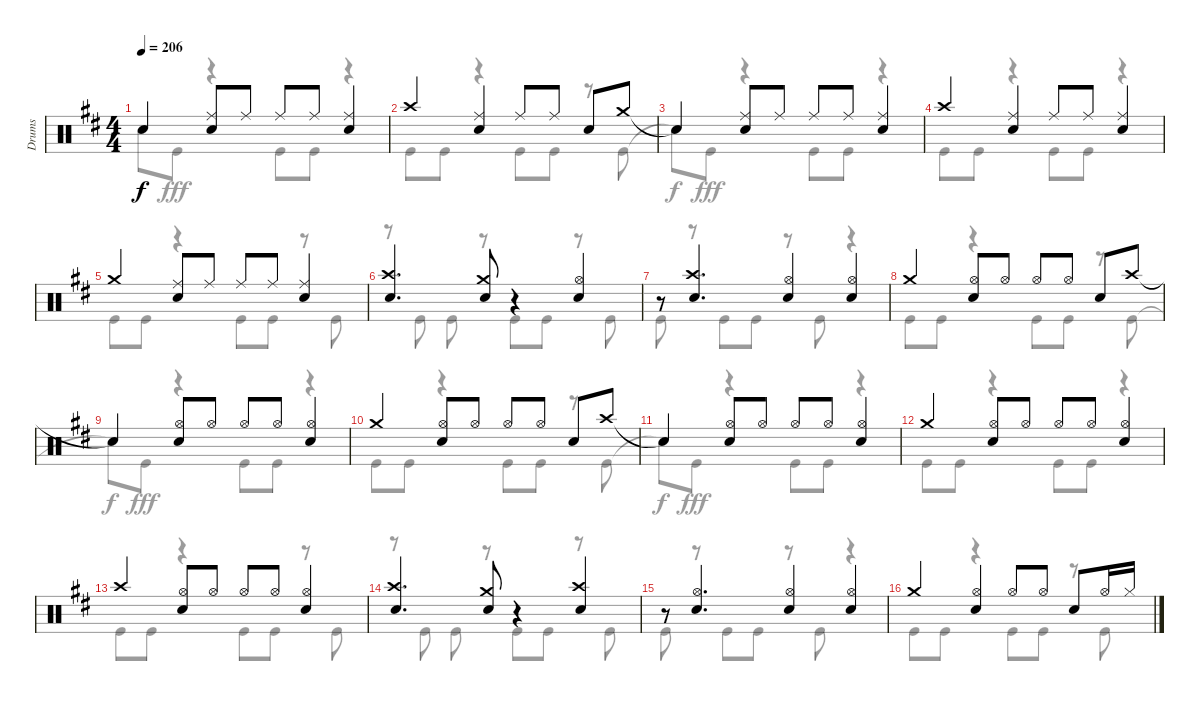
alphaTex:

\track ("Drums" "Drums") {instrument percussion}
\staff {score}
\articulation defaults
\voice
\ts (4 4)
\tempo 206
\clef neutral
\ks d "Snare (hit)"{t}.4{dy f}
("Ride (middle)" "Snare (hit) 2").8 "Ride (middle)".8 "Ride (middle)".8 "Ride (middle)".8 ("Ride (middle)" "Snare (hit) 2").4 |
"Crash high (hit)".4 ("Ride (middle)" "Snare (hit) 2").4 "Ride (middle)".8 "Ride (middle)".8 "Snare (hit) 2".8 "Crash medium (hit)".8 |
"Snare (hit)"{t}.4 ("Ride (middle)" "Snare (hit) 2").8 "Ride (middle)".8 "Ride (middle)".8 "Ride (middle)".8 ("Ride (middle)" "Snare (hit) 2").4 |
"Crash high (hit)".4 ("Ride (middle)" "Snare (hit) 2").4 "Ride (middle)".8 "Ride (middle)".8 ("Ride (middle)" "Snare (hit) 2").4 |
"Crash medium (hit)".4 ("Ride (middle)" "Snare (hit) 2").8 "Ride (middle)".8 "Ride (middle)".8 "Ride (middle)".8 ("Ride (middle)" "Snare (hit) 2").4 |
("Crash high (hit)" "Snare (hit) 2").4{d} ("Crash medium (hit)" "Snare (hit) 2").8 r.4 ("Hi-Hat (open)" "Snare (hit) 2").4 |
r.8 ("Crash high (hit)" "Snare (hit) 2").4{d} ("Hi-Hat (open)" "Snare (hit) 2").4 ("Hi-Hat (open)" "Snare (hit) 2").4 |
"Crash medium (hit)".4 ("Hi-Hat (open)" "Snare (hit) 2").8 "Hi-Hat (open)".8 "Hi-Hat (open)".8 "Hi-Hat (open)".8 "Snare (hit) 2".8 "Crash high (hit)".8 |
"Snare (hit)"{t}.4 ("Hi-Hat (open)" "Snare (hit) 2").8 "Hi-Hat (open)".8 "Hi-Hat (open)".8 "Hi-Hat (open)".8 ("Hi-Hat (open)" "Snare (hit) 2").4 |
"Crash medium (hit)".4 ("Hi-Hat (open)" "Snare (hit) 2").8 "Hi-Hat (open)".8 "Hi-Hat (open)".8 "Hi-Hat (open)".8 "Snare (hit) 2".8 "Crash high (hit)".8 |
"Snare (hit)"{t}.4 ("Hi-Hat (open)" "Snare (hit) 2").8 "Hi-Hat (open)".8 "Hi-Hat (open)".8 "Hi-Hat (open)".8 ("Hi-Hat (open)" "Snare (hit) 2").4 |
"Crash medium (hit)".4 ("Hi-Hat (open)" "Snare (hit) 2").8 "Hi-Hat (open)".8 "Hi-Hat (open)".8 "Hi-Hat (open)".8 ("Hi-Hat (open)" "Snare (hit) 2").4 |
"Crash high (hit)".4 ("Hi-Hat (open)" "Snare (hit) 2").8 "Hi-Hat (open)".8 "Hi-Hat (open)".8 "Hi-Hat (open)".8 ("Hi-Hat (open)" "Snare (hit) 2").4 |
("Crash high (hit)" "Snare (hit) 2").4{d} ("Crash medium (hit)" "Snare (hit) 2").8 r.4 ("Crash high (hit)" "Snare (hit) 2").4 |
r.8 ("Hi-Hat (open)" "Snare (hit) 2").4{d} ("Hi-Hat (open)" "Snare (hit) 2").4 ("Hi-Hat (open)" "Snare (hit) 2").4 |
"Crash medium (hit)".4 ("Hi-Hat (open)" "Snare (hit) 2").4 "Hi-Hat (open)".8 "Hi-Hat (open)".8 "Snare (hit) 2".8 "Hi-Hat (open)".16 "Hi-Hat (closed)".16
\voice
\clef neutral
\ottava regular
\simile none
\ks d "Snare (hit)"{t}.8{dy f} "Kick (hit)".8{dy fff}
r.4 "Kick (hit)".8 "Kick (hit)".8 r.4 |
"Kick (hit)".8 "Kick (hit)".8 r.4 "Kick (hit)".8 "Kick (hit)".8 r.8 "Kick (hit)".8 |
"Snare (hit)"{t}.8{dy f} "Kick (hit)".8{dy fff} r.4 "Kick (hit)".8 "Kick (hit)".8 r.4 |
"Kick (hit)".8 "Kick (hit)".8 r.4 "Kick (hit)".8 "Kick (hit)".8 r.4 |
"Kick (hit)".8 "Kick (hit)".8 r.4 "Kick (hit)".8 "Kick (hit)".8 r.8 "Kick (hit)".8 |
r.8 "Kick (hit)".8 "Kick (hit)".8 r.8 "Kick (hit)".8 "Kick (hit)".8 r.8 "Kick (hit)".8 |
"Kick (hit)".8 r.8 "Kick (hit)".8 "Kick (hit)".8 r.8 "Kick (hit)".8 r.4 |
"Kick (hit)".8 "Kick (hit)".8 r.4 "Kick (hit)".8 "Kick (hit)".8 r.8 "Kick (hit)".8 |
"Snare (hit)"{t}.8{dy f} "Kick (hit)".8{dy fff} r.4 "Kick (hit)".8 "Kick (hit)".8 r.4 |
"Kick (hit)".8 "Kick (hit)".8 r.4 "Kick (hit)".8 "Kick (hit)".8 r.8 "Kick (hit)".8 |
"Snare (hit)"{t}.8{dy f} "Kick (hit)".8{dy fff} r.4 "Kick (hit)".8 "Kick (hit)".8 r.4 |
"Kick (hit)".8 "Kick (hit)".8 r.4 "Kick (hit)".8 "Kick (hit)".8 r.4 |
"Kick (hit)".8 "Kick (hit)".8 r.4 "Kick (hit)".8 "Kick (hit)".8 r.8 "Kick (hit)".8 |
r.8 "Kick (hit)".8 "Kick (hit)".8 r.8 "Kick (hit)".8 "Kick (hit)".8 r.8 "Kick (hit)".8 |
"Kick (hit)".8 r.8 "Kick (hit)".8 "Kick (hit)".8 r.8 "Kick (hit)".8 r.4 |
"Kick (hit)".8 "Kick (hit)".8 r.4 "Kick (hit)".8 "Kick (hit)".8 r.8 "Kick (hit)".8
